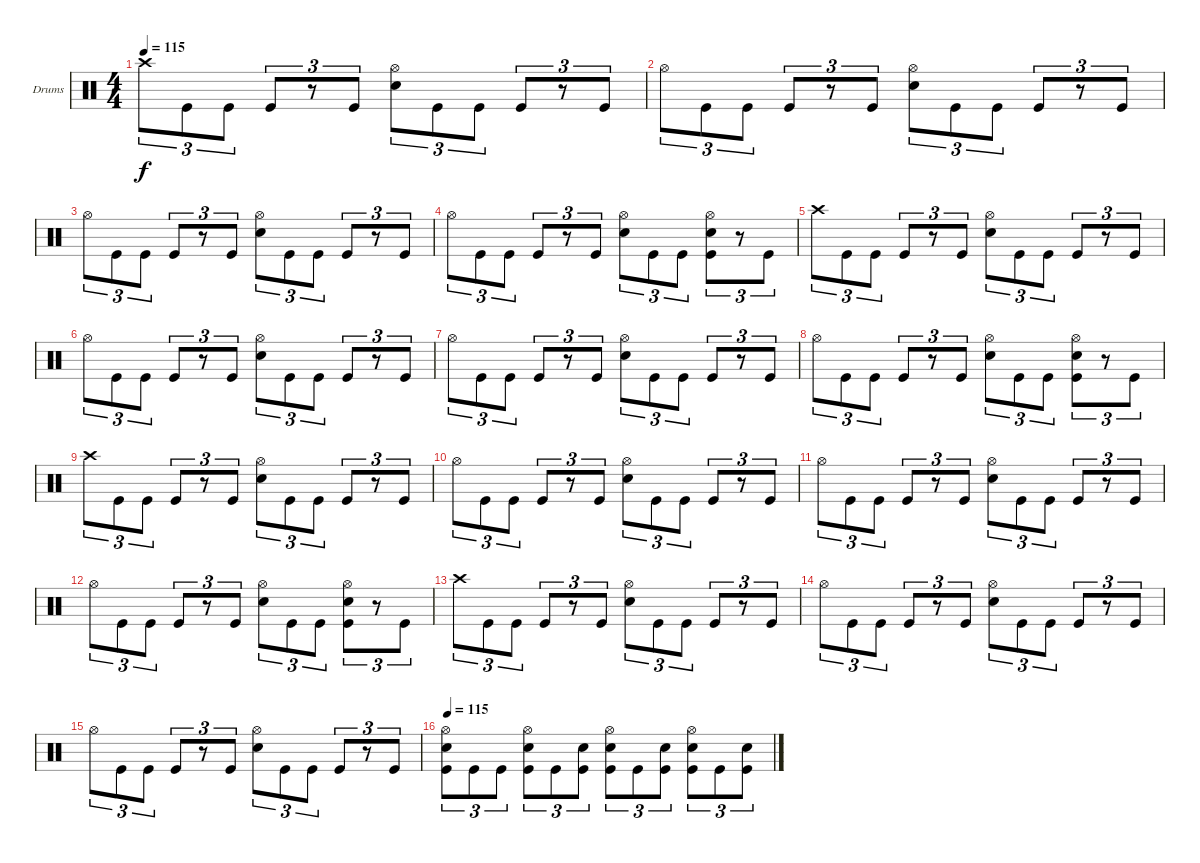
\bracketExtendMode groupsimilarinstruments
\firstSystemTrackNameOrientation horizontal
\otherSystemsTrackNameOrientation horizontal
\track ("Drumkit" "Drums") {instrument percussion}
\staff {score}
\articulation defaults
\ts (4 4)
\tempo 115
\clef neutral
\ks c "Crash high (hit)".8{tu (3 2) dy f} "Kick (hit)".8{tu (3 2)} "Kick (hit)".8{tu (3 2)} "Kick (hit)".8{tu (3 2)}
r.8{tu (3 2)} "Kick (hit)".8{tu (3 2)} ("Snare (hit) 2" "Hi-Hat (open)").8{tu (3 2)} "Kick (hit)".8{tu (3 2)} "Kick (hit)".8{tu (3 2)} "Kick (hit)".8{tu (3 2)} r.8{tu (3 2)} "Kick (hit)".8{tu (3 2)} |
"Hi-Hat (open)".8{tu (3 2)} "Kick (hit)".8{tu (3 2)} "Kick (hit)".8{tu (3 2)} "Kick (hit)".8{tu (3 2)} r.8{tu (3 2)} "Kick (hit)".8{tu (3 2)} ("Snare (hit) 2" "Hi-Hat (open)").8{tu (3 2)} "Kick (hit)".8{tu (3 2)} "Kick (hit)".8{tu (3 2)} "Kick (hit)".8{tu (3 2)} r.8{tu (3 2)} "Kick (hit)".8{tu (3 2)} |
"Hi-Hat (open)".8{tu (3 2)} "Kick (hit)".8{tu (3 2)} "Kick (hit)".8{tu (3 2)} "Kick (hit)".8{tu (3 2)} r.8{tu (3 2)} "Kick (hit)".8{tu (3 2)} ("Snare (hit) 2" "Hi-Hat (open)").8{tu (3 2)} "Kick (hit)".8{tu (3 2)} "Kick (hit)".8{tu (3 2)} "Kick (hit)".8{tu (3 2)} r.8{tu (3 2)} "Kick (hit)".8{tu (3 2)} |
"Hi-Hat (open)".8{tu (3 2)} "Kick (hit)".8{tu (3 2)} "Kick (hit)".8{tu (3 2)} "Kick (hit)".8{tu (3 2)} r.8{tu (3 2)} "Kick (hit)".8{tu (3 2)} ("Snare (hit) 2" "Hi-Hat (open)").8{tu (3 2)} "Kick (hit)".8{tu (3 2)} "Kick (hit)".8{tu (3 2)} ("Kick (hit)" "Snare (hit) 2" "Hi-Hat (open)").8{tu (3 2)} r.8{tu (3 2)} "Kick (hit)".8{tu (3 2)} |
"Crash high (hit)".8{tu (3 2)} "Kick (hit)".8{tu (3 2)} "Kick (hit)".8{tu (3 2)} "Kick (hit)".8{tu (3 2)} r.8{tu (3 2)} "Kick (hit)".8{tu (3 2)} ("Snare (hit) 2" "Hi-Hat (open)").8{tu (3 2)} "Kick (hit)".8{tu (3 2)} "Kick (hit)".8{tu (3 2)} "Kick (hit)".8{tu (3 2)} r.8{tu (3 2)} "Kick (hit)".8{tu (3 2)} |
"Hi-Hat (open)".8{tu (3 2)} "Kick (hit)".8{tu (3 2)} "Kick (hit)".8{tu (3 2)} "Kick (hit)".8{tu (3 2)} r.8{tu (3 2)} "Kick (hit)".8{tu (3 2)} ("Snare (hit) 2" "Hi-Hat (open)").8{tu (3 2)} "Kick (hit)".8{tu (3 2)} "Kick (hit)".8{tu (3 2)} "Kick (hit)".8{tu (3 2)} r.8{tu (3 2)} "Kick (hit)".8{tu (3 2)} |
"Hi-Hat (open)".8{tu (3 2)} "Kick (hit)".8{tu (3 2)} "Kick (hit)".8{tu (3 2)} "Kick (hit)".8{tu (3 2)} r.8{tu (3 2)} "Kick (hit)".8{tu (3 2)} ("Snare (hit) 2" "Hi-Hat (open)").8{tu (3 2)} "Kick (hit)".8{tu (3 2)} "Kick (hit)".8{tu (3 2)} "Kick (hit)".8{tu (3 2)} r.8{tu (3 2)} "Kick (hit)".8{tu (3 2)} |
"Hi-Hat (open)".8{tu (3 2)} "Kick (hit)".8{tu (3 2)} "Kick (hit)".8{tu (3 2)} "Kick (hit)".8{tu (3 2)} r.8{tu (3 2)} "Kick (hit)".8{tu (3 2)} ("Snare (hit) 2" "Hi-Hat (open)").8{tu (3 2)} "Kick (hit)".8{tu (3 2)} "Kick (hit)".8{tu (3 2)} ("Kick (hit)" "Snare (hit) 2" "Hi-Hat (open)").8{tu (3 2)} r.8{tu (3 2)} "Kick (hit)".8{tu (3 2)} |
"Crash high (hit)".8{tu (3 2)} "Kick (hit)".8{tu (3 2)} "Kick (hit)".8{tu (3 2)} "Kick (hit)".8{tu (3 2)} r.8{tu (3 2)} "Kick (hit)".8{tu (3 2)} ("Snare (hit) 2" "Hi-Hat (open)").8{tu (3 2)} "Kick (hit)".8{tu (3 2)} "Kick (hit)".8{tu (3 2)} "Kick (hit)".8{tu (3 2)} r.8{tu (3 2)} "Kick (hit)".8{tu (3 2)} |
"Hi-Hat (open)".8{tu (3 2)} "Kick (hit)".8{tu (3 2)} "Kick (hit)".8{tu (3 2)} "Kick (hit)".8{tu (3 2)} r.8{tu (3 2)} "Kick (hit)".8{tu (3 2)} ("Snare (hit) 2" "Hi-Hat (open)").8{tu (3 2)} "Kick (hit)".8{tu (3 2)} "Kick (hit)".8{tu (3 2)} "Kick (hit)".8{tu (3 2)} r.8{tu (3 2)} "Kick (hit)".8{tu (3 2)} |
"Hi-Hat (open)".8{tu (3 2)} "Kick (hit)".8{tu (3 2)} "Kick (hit)".8{tu (3 2)} "Kick (hit)".8{tu (3 2)} r.8{tu (3 2)} "Kick (hit)".8{tu (3 2)} ("Snare (hit) 2" "Hi-Hat (open)").8{tu (3 2)} "Kick (hit)".8{tu (3 2)} "Kick (hit)".8{tu (3 2)} "Kick (hit)".8{tu (3 2)} r.8{tu (3 2)} "Kick (hit)".8{tu (3 2)} |
"Hi-Hat (open)".8{tu (3 2)} "Kick (hit)".8{tu (3 2)} "Kick (hit)".8{tu (3 2)} "Kick (hit)".8{tu (3 2)} r.8{tu (3 2)} "Kick (hit)".8{tu (3 2)} ("Snare (hit) 2" "Hi-Hat (open)").8{tu (3 2)} "Kick (hit)".8{tu (3 2)} "Kick (hit)".8{tu (3 2)} ("Kick (hit)" "Snare (hit) 2" "Hi-Hat (open)").8{tu (3 2)} r.8{tu (3 2)} "Kick (hit)".8{tu (3 2)} |
"Crash high (hit)".8{tu (3 2)} "Kick (hit)".8{tu (3 2)} "Kick (hit)".8{tu (3 2)} "Kick (hit)".8{tu (3 2)} r.8{tu (3 2)} "Kick (hit)".8{tu (3 2)} ("Snare (hit) 2" "Hi-Hat (open)").8{tu (3 2)} "Kick (hit)".8{tu (3 2)} "Kick (hit)".8{tu (3 2)} "Kick (hit)".8{tu (3 2)} r.8{tu (3 2)} "Kick (hit)".8{tu (3 2)} |
"Hi-Hat (open)".8{tu (3 2)} "Kick (hit)".8{tu (3 2)} "Kick (hit)".8{tu (3 2)} "Kick (hit)".8{tu (3 2)} r.8{tu (3 2)} "Kick (hit)".8{tu (3 2)} ("Snare (hit) 2" "Hi-Hat (open)").8{tu (3 2)} "Kick (hit)".8{tu (3 2)} "Kick (hit)".8{tu (3 2)} "Kick (hit)".8{tu (3 2)} r.8{tu (3 2)} "Kick (hit)".8{tu (3 2)} |
"Hi-Hat (open)".8{tu (3 2)} "Kick (hit)".8{tu (3 2)} "Kick (hit)".8{tu (3 2)} "Kick (hit)".8{tu (3 2)} r.8{tu (3 2)} "Kick (hit)".8{tu (3 2)} ("Snare (hit) 2" "Hi-Hat (open)").8{tu (3 2)} "Kick (hit)".8{tu (3 2)} "Kick (hit)".8{tu (3 2)} "Kick (hit)".8{tu (3 2)} r.8{tu (3 2)} "Kick (hit)".8{tu (3 2)} |
\tempo (115 0.00625)
("Hi-Hat (open)" "Kick (hit)" "Snare (hit) 2").8{tu (3 2)} "Kick (hit)".8{tu (3 2)} "Kick (hit)".8{tu (3 2)} ("Kick (hit)" "Snare (hit) 2" "Hi-Hat (open)").8{tu (3 2)} "Kick (hit)".8{tu (3 2)} ("Kick (hit)" "Snare (hit) 2").8{tu (3 2)} ("Snare (hit) 2" "Hi-Hat (open)" "Kick (hit)").8{tu (3 2)} "Kick (hit)".8{tu (3 2)} ("Kick (hit)" "Snare (hit) 2").8{tu (3 2)} ("Kick (hit)" "Snare (hit) 2" "Hi-Hat (open)").8{tu (3 2)} "Kick (hit)".8{tu (3 2)} ("Kick (hit)" "Snare (hit) 2").8{tu (3 2)}
